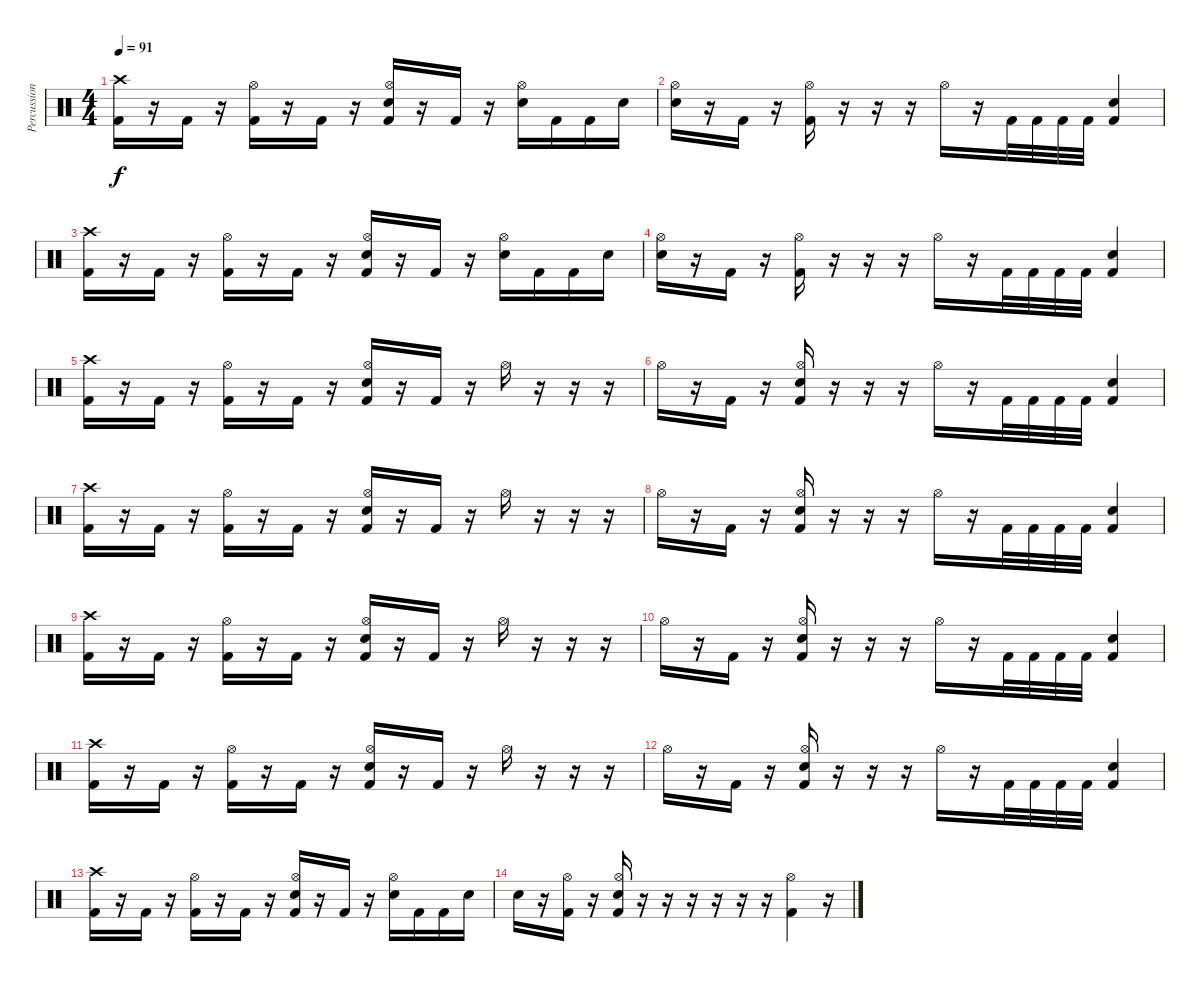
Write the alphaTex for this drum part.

\track ("Percussion" "Percussion") {instrument percussion}
\staff {score}
\articulation defaults
\ts (4 4)
\tempo 91
\clef neutral
\ks c
("Crash high (hit)" "Kick (hit) 2").16{dy f} r.16 "Kick (hit) 2".16 r.16 ("Hi-Hat (open)" "Kick (hit) 2").16 r.16 "Kick (hit) 2".16 r.16 ("Hi-Hat (open)" "Snare (hit) 2" "Kick (hit) 2").16 r.16 "Kick (hit) 2".16 r.16 ("Hi-Hat (open)" "Snare (hit) 2").16 "Kick (hit) 2".16 "Kick (hit) 2".16 "Snare (hit) 2".16 |
("Hi-Hat (open)" "Snare (hit) 2").16 r.16 "Kick (hit) 2".16 r.16 ("Hi-Hat (open)" "Kick (hit) 2").16 r.16 r.16 r.16 "Hi-Hat (open)".16 r.16 "Kick (hit) 2".32 "Kick (hit) 2".32 "Kick (hit) 2".32 "Kick (hit) 2".32 ("Kick (hit) 2" "Snare (hit) 2").4 |
("Crash high (hit)" "Kick (hit) 2").16 r.16 "Kick (hit) 2".16 r.16 ("Hi-Hat (open)" "Kick (hit) 2").16 r.16 "Kick (hit) 2".16 r.16 ("Hi-Hat (open)" "Snare (hit) 2" "Kick (hit) 2").16 r.16 "Kick (hit) 2".16 r.16 ("Hi-Hat (open)" "Snare (hit) 2").16 "Kick (hit) 2".16 "Kick (hit) 2".16 "Snare (hit) 2".16 |
("Hi-Hat (open)" "Snare (hit) 2").16 r.16 "Kick (hit) 2".16 r.16 ("Hi-Hat (open)" "Kick (hit) 2").16 r.16 r.16 r.16 "Hi-Hat (open)".16 r.16 "Kick (hit) 2".32 "Kick (hit) 2".32 "Kick (hit) 2".32 "Kick (hit) 2".32 ("Kick (hit) 2" "Snare (hit) 2").4 |
("Crash high (hit)" "Kick (hit) 2").16 r.16 "Kick (hit) 2".16 r.16 ("Hi-Hat (open)" "Kick (hit) 2").16 r.16 "Kick (hit) 2".16 r.16 ("Hi-Hat (open)" "Snare (hit) 2" "Kick (hit) 2").16 r.16 "Kick (hit) 2".16 r.16 "Hi-Hat (open)".16 r.16 r.16 r.16 |
"Hi-Hat (open)".16 r.16 "Kick (hit) 2".16 r.16 ("Hi-Hat (open)" "Snare (hit) 2" "Kick (hit) 2").16 r.16 r.16 r.16 "Hi-Hat (open)".16 r.16 "Kick (hit) 2".32 "Kick (hit) 2".32 "Kick (hit) 2".32 "Kick (hit) 2".32 ("Kick (hit) 2" "Snare (hit) 2").4 |
("Crash high (hit)" "Kick (hit) 2").16 r.16 "Kick (hit) 2".16 r.16 ("Hi-Hat (open)" "Kick (hit) 2").16 r.16 "Kick (hit) 2".16 r.16 ("Hi-Hat (open)" "Snare (hit) 2" "Kick (hit) 2").16 r.16 "Kick (hit) 2".16 r.16 "Hi-Hat (open)".16 r.16 r.16 r.16 |
"Hi-Hat (open)".16 r.16 "Kick (hit) 2".16 r.16 ("Hi-Hat (open)" "Snare (hit) 2" "Kick (hit) 2").16 r.16 r.16 r.16 "Hi-Hat (open)".16 r.16 "Kick (hit) 2".32 "Kick (hit) 2".32 "Kick (hit) 2".32 "Kick (hit) 2".32 ("Kick (hit) 2" "Snare (hit) 2").4 |
("Crash high (hit)" "Kick (hit) 2").16 r.16 "Kick (hit) 2".16 r.16 ("Hi-Hat (open)" "Kick (hit) 2").16 r.16 "Kick (hit) 2".16 r.16 ("Hi-Hat (open)" "Snare (hit) 2" "Kick (hit) 2").16 r.16 "Kick (hit) 2".16 r.16 "Hi-Hat (open)".16 r.16 r.16 r.16 |
"Hi-Hat (open)".16 r.16 "Kick (hit) 2".16 r.16 ("Hi-Hat (open)" "Snare (hit) 2" "Kick (hit) 2").16 r.16 r.16 r.16 "Hi-Hat (open)".16 r.16 "Kick (hit) 2".32 "Kick (hit) 2".32 "Kick (hit) 2".32 "Kick (hit) 2".32 ("Kick (hit) 2" "Snare (hit) 2").4 |
("Crash high (hit)" "Kick (hit) 2").16 r.16 "Kick (hit) 2".16 r.16 ("Hi-Hat (open)" "Kick (hit) 2").16 r.16 "Kick (hit) 2".16 r.16 ("Hi-Hat (open)" "Snare (hit) 2" "Kick (hit) 2").16 r.16 "Kick (hit) 2".16 r.16 "Hi-Hat (open)".16 r.16 r.16 r.16 |
"Hi-Hat (open)".16 r.16 "Kick (hit) 2".16 r.16 ("Hi-Hat (open)" "Snare (hit) 2" "Kick (hit) 2").16 r.16 r.16 r.16 "Hi-Hat (open)".16 r.16 "Kick (hit) 2".32 "Kick (hit) 2".32 "Kick (hit) 2".32 "Kick (hit) 2".32 ("Kick (hit) 2" "Snare (hit) 2").4 |
("Crash high (hit)" "Kick (hit) 2").16 r.16 "Kick (hit) 2".16 r.16 ("Hi-Hat (open)" "Kick (hit) 2").16 r.16 "Kick (hit) 2".16 r.16 ("Hi-Hat (open)" "Snare (hit) 2" "Kick (hit) 2").16 r.16 "Kick (hit) 2".16 r.16 ("Hi-Hat (open)" "Snare (hit) 2").16 "Kick (hit) 2".16 "Kick (hit) 2".16 "Snare (hit) 2".16 |
"Snare (hit) 2".16 r.16 ("Hi-Hat (open)" "Kick (hit) 2").16 r.16 ("Hi-Hat (open)" "Snare (hit) 2" "Kick (hit) 2").16 r.16 r.16 r.16 r.16 r.16 r.16 ("Hi-Hat (open)" "Kick (hit) 2").4 r.16
